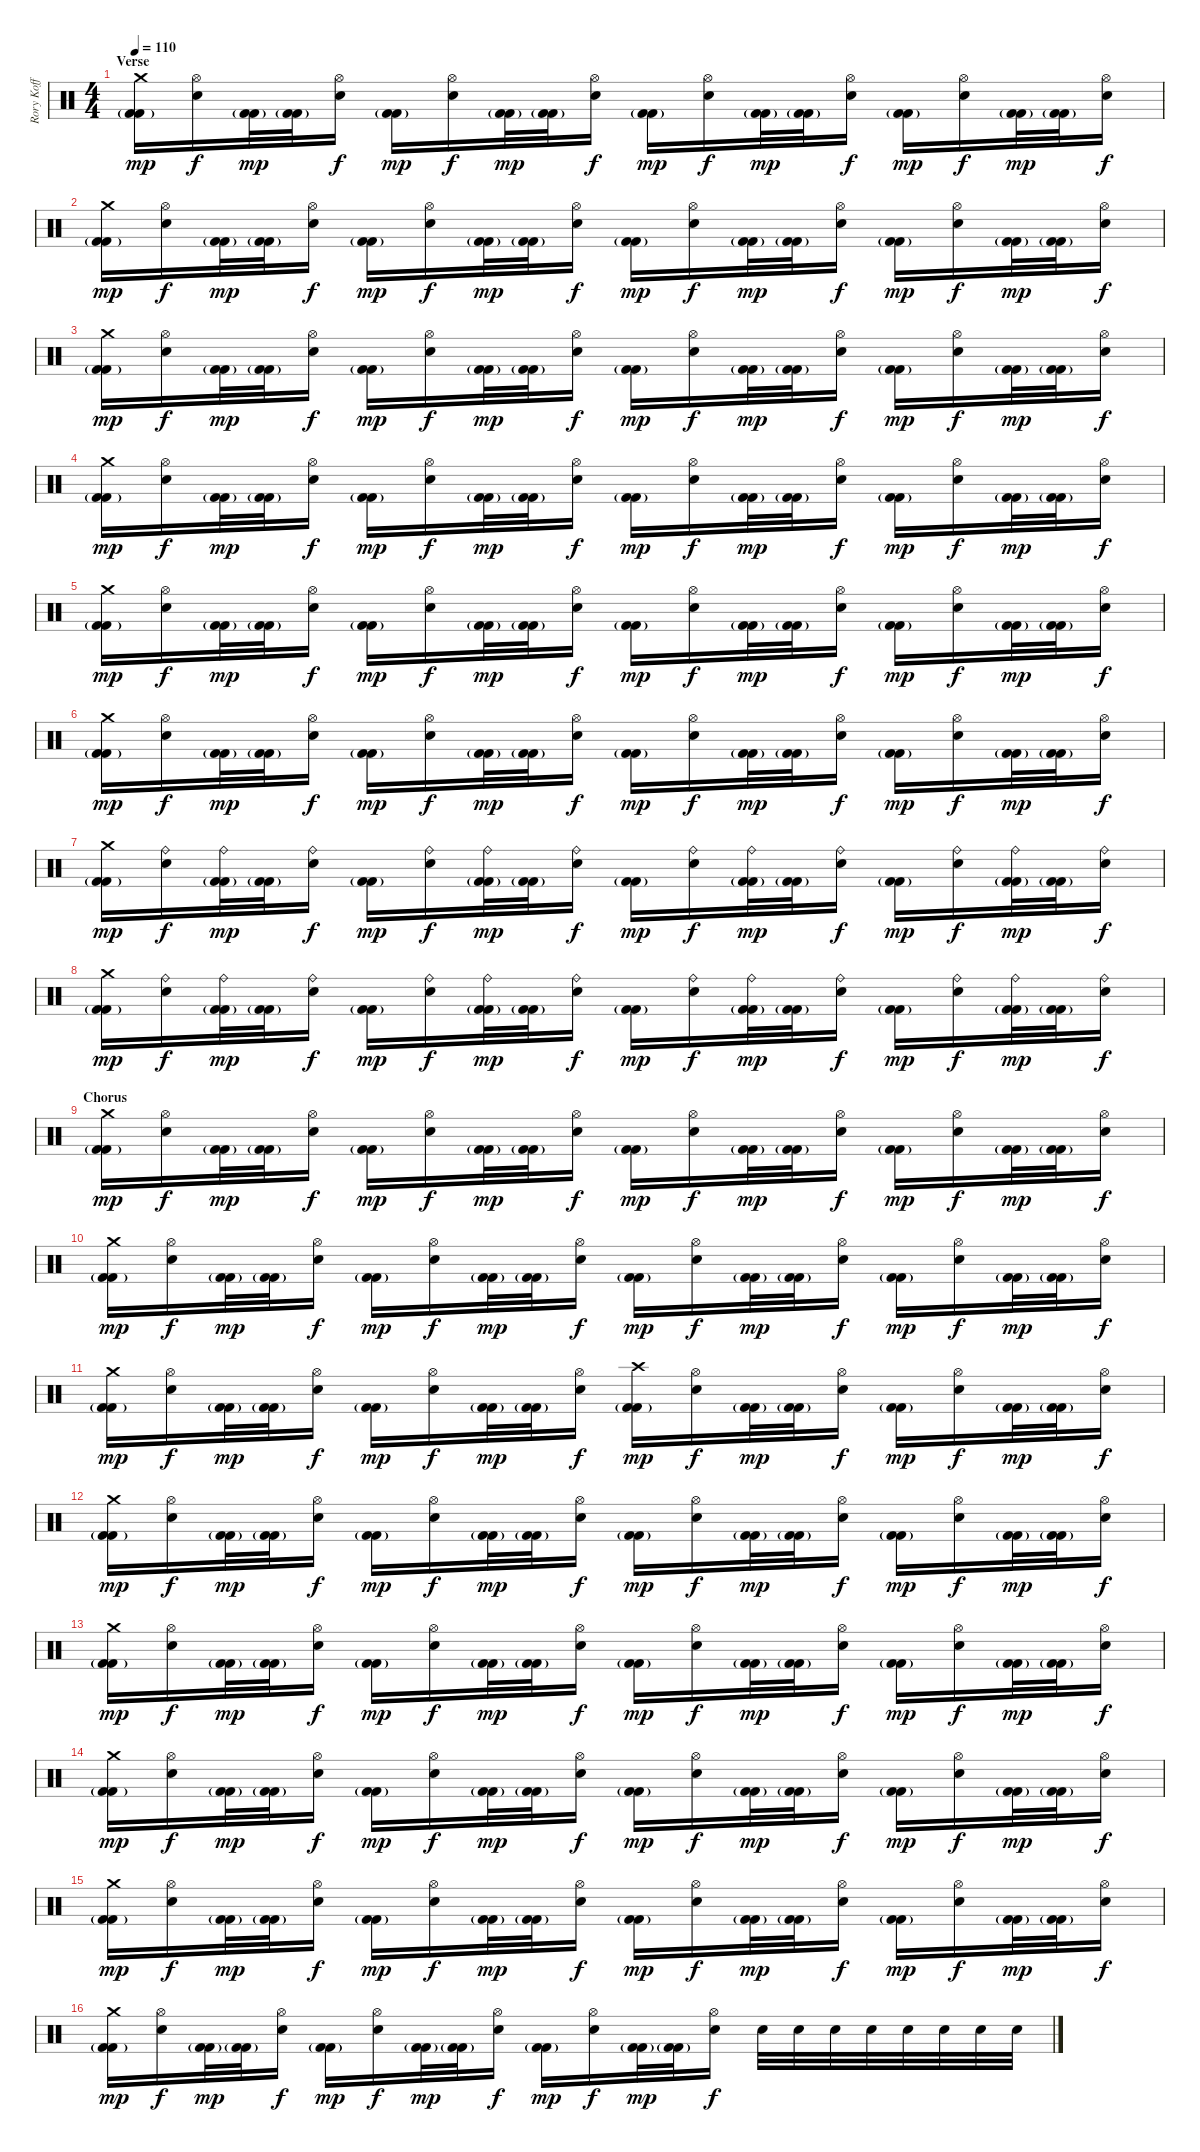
\track ("Rory Koff" "Rory Koff") {instrument percussion}
\staff {score}
\articulation defaults
\ts (4 4)
\section ("" "Verse")
\tempo 110
\clef neutral
\ks c
("Crash medium (hit)" "Kick (hit) 2"{g} "Kick (hit) 2").16{dy mp} ("Hi-Hat (open)" "Snare (hit) 2").16{dy f} ("Kick (hit) 2"{g} "Kick (hit) 2").32{dy mp} ("Kick (hit) 2"{g} "Kick (hit) 2").32 ("Hi-Hat (open)" "Snare (hit) 2").16{dy f} ("Kick (hit) 2"{g} "Kick (hit) 2").16{dy mp} ("Hi-Hat (open)" "Snare (hit) 2").16{dy f} ("Kick (hit) 2"{g} "Kick (hit) 2").32{dy mp} ("Kick (hit) 2"{g} "Kick (hit) 2").32 ("Hi-Hat (open)" "Snare (hit) 2").16{dy f} ("Kick (hit) 2"{g} "Kick (hit) 2").16{dy mp} ("Hi-Hat (open)" "Snare (hit) 2").16{dy f} ("Kick (hit) 2"{g} "Kick (hit) 2").32{dy mp} ("Kick (hit) 2"{g} "Kick (hit) 2").32 ("Hi-Hat (open)" "Snare (hit) 2").16{dy f} ("Kick (hit) 2"{g} "Kick (hit) 2").16{dy mp} ("Hi-Hat (open)" "Snare (hit) 2").16{dy f} ("Kick (hit) 2"{g} "Kick (hit) 2").32{dy mp} ("Kick (hit) 2"{g} "Kick (hit) 2").32 ("Hi-Hat (open)" "Snare (hit) 2").16{dy f} |
("Crash medium (hit)" "Kick (hit) 2"{g} "Kick (hit) 2").16{dy mp} ("Hi-Hat (open)" "Snare (hit) 2").16{dy f} ("Kick (hit) 2"{g} "Kick (hit) 2").32{dy mp} ("Kick (hit) 2"{g} "Kick (hit) 2").32 ("Hi-Hat (open)" "Snare (hit) 2").16{dy f} ("Kick (hit) 2"{g} "Kick (hit) 2").16{dy mp} ("Hi-Hat (open)" "Snare (hit) 2").16{dy f} ("Kick (hit) 2"{g} "Kick (hit) 2").32{dy mp} ("Kick (hit) 2"{g} "Kick (hit) 2").32 ("Hi-Hat (open)" "Snare (hit) 2").16{dy f} ("Kick (hit) 2"{g} "Kick (hit) 2").16{dy mp} ("Hi-Hat (open)" "Snare (hit) 2").16{dy f} ("Kick (hit) 2"{g} "Kick (hit) 2").32{dy mp} ("Kick (hit) 2"{g} "Kick (hit) 2").32 ("Hi-Hat (open)" "Snare (hit) 2").16{dy f} ("Kick (hit) 2"{g} "Kick (hit) 2").16{dy mp} ("Hi-Hat (open)" "Snare (hit) 2").16{dy f} ("Kick (hit) 2"{g} "Kick (hit) 2").32{dy mp} ("Kick (hit) 2"{g} "Kick (hit) 2").32 ("Hi-Hat (open)" "Snare (hit) 2").16{dy f} |
("Crash medium (hit)" "Kick (hit) 2"{g} "Kick (hit) 2").16{dy mp} ("Hi-Hat (open)" "Snare (hit) 2").16{dy f} ("Kick (hit) 2"{g} "Kick (hit) 2").32{dy mp} ("Kick (hit) 2"{g} "Kick (hit) 2").32 ("Hi-Hat (open)" "Snare (hit) 2").16{dy f} ("Kick (hit) 2"{g} "Kick (hit) 2").16{dy mp} ("Hi-Hat (open)" "Snare (hit) 2").16{dy f} ("Kick (hit) 2"{g} "Kick (hit) 2").32{dy mp} ("Kick (hit) 2"{g} "Kick (hit) 2").32 ("Hi-Hat (open)" "Snare (hit) 2").16{dy f} ("Kick (hit) 2"{g} "Kick (hit) 2").16{dy mp} ("Hi-Hat (open)" "Snare (hit) 2").16{dy f} ("Kick (hit) 2"{g} "Kick (hit) 2").32{dy mp} ("Kick (hit) 2"{g} "Kick (hit) 2").32 ("Hi-Hat (open)" "Snare (hit) 2").16{dy f} ("Kick (hit) 2"{g} "Kick (hit) 2").16{dy mp} ("Hi-Hat (open)" "Snare (hit) 2").16{dy f} ("Kick (hit) 2"{g} "Kick (hit) 2").32{dy mp} ("Kick (hit) 2"{g} "Kick (hit) 2").32 ("Hi-Hat (open)" "Snare (hit) 2").16{dy f} |
("Crash medium (hit)" "Kick (hit) 2"{g} "Kick (hit) 2").16{dy mp} ("Hi-Hat (open)" "Snare (hit) 2").16{dy f} ("Kick (hit) 2"{g} "Kick (hit) 2").32{dy mp} ("Kick (hit) 2"{g} "Kick (hit) 2").32 ("Hi-Hat (open)" "Snare (hit) 2").16{dy f} ("Kick (hit) 2"{g} "Kick (hit) 2").16{dy mp} ("Hi-Hat (open)" "Snare (hit) 2").16{dy f} ("Kick (hit) 2"{g} "Kick (hit) 2").32{dy mp} ("Kick (hit) 2"{g} "Kick (hit) 2").32 ("Hi-Hat (open)" "Snare (hit) 2").16{dy f} ("Kick (hit) 2"{g} "Kick (hit) 2").16{dy mp} ("Hi-Hat (open)" "Snare (hit) 2").16{dy f} ("Kick (hit) 2"{g} "Kick (hit) 2").32{dy mp} ("Kick (hit) 2"{g} "Kick (hit) 2").32 ("Hi-Hat (open)" "Snare (hit) 2").16{dy f} ("Kick (hit) 2"{g} "Kick (hit) 2").16{dy mp} ("Hi-Hat (open)" "Snare (hit) 2").16{dy f} ("Kick (hit) 2"{g} "Kick (hit) 2").32{dy mp} ("Kick (hit) 2"{g} "Kick (hit) 2").32 ("Hi-Hat (open)" "Snare (hit) 2").16{dy f} |
("Crash medium (hit)" "Kick (hit) 2"{g} "Kick (hit) 2").16{dy mp} ("Hi-Hat (open)" "Snare (hit) 2").16{dy f} ("Kick (hit) 2"{g} "Kick (hit) 2").32{dy mp} ("Kick (hit) 2"{g} "Kick (hit) 2").32 ("Hi-Hat (open)" "Snare (hit) 2").16{dy f} ("Kick (hit) 2"{g} "Kick (hit) 2").16{dy mp} ("Hi-Hat (open)" "Snare (hit) 2").16{dy f} ("Kick (hit) 2"{g} "Kick (hit) 2").32{dy mp} ("Kick (hit) 2"{g} "Kick (hit) 2").32 ("Hi-Hat (open)" "Snare (hit) 2").16{dy f} ("Kick (hit) 2"{g} "Kick (hit) 2").16{dy mp} ("Hi-Hat (open)" "Snare (hit) 2").16{dy f} ("Kick (hit) 2"{g} "Kick (hit) 2").32{dy mp} ("Kick (hit) 2"{g} "Kick (hit) 2").32 ("Hi-Hat (open)" "Snare (hit) 2").16{dy f} ("Kick (hit) 2"{g} "Kick (hit) 2").16{dy mp} ("Hi-Hat (open)" "Snare (hit) 2").16{dy f} ("Kick (hit) 2"{g} "Kick (hit) 2").32{dy mp} ("Kick (hit) 2"{g} "Kick (hit) 2").32 ("Hi-Hat (open)" "Snare (hit) 2").16{dy f} |
("Crash medium (hit)" "Kick (hit) 2"{g} "Kick (hit) 2").16{dy mp} ("Hi-Hat (open)" "Snare (hit) 2").16{dy f} ("Kick (hit) 2"{g} "Kick (hit) 2").32{dy mp} ("Kick (hit) 2"{g} "Kick (hit) 2").32 ("Hi-Hat (open)" "Snare (hit) 2").16{dy f} ("Kick (hit) 2"{g} "Kick (hit) 2").16{dy mp} ("Hi-Hat (open)" "Snare (hit) 2").16{dy f} ("Kick (hit) 2"{g} "Kick (hit) 2").32{dy mp} ("Kick (hit) 2"{g} "Kick (hit) 2").32 ("Hi-Hat (open)" "Snare (hit) 2").16{dy f} ("Kick (hit) 2"{g} "Kick (hit) 2").16{dy mp} ("Hi-Hat (open)" "Snare (hit) 2").16{dy f} ("Kick (hit) 2"{g} "Kick (hit) 2").32{dy mp} ("Kick (hit) 2"{g} "Kick (hit) 2").32 ("Hi-Hat (open)" "Snare (hit) 2").16{dy f} ("Kick (hit) 2"{g} "Kick (hit) 2").16{dy mp} ("Hi-Hat (open)" "Snare (hit) 2").16{dy f} ("Kick (hit) 2"{g} "Kick (hit) 2").32{dy mp} ("Kick (hit) 2"{g} "Kick (hit) 2").32 ("Hi-Hat (open)" "Snare (hit) 2").16{dy f} |
("Crash medium (hit)" "Kick (hit) 2"{g} "Kick (hit) 2").16{dy mp} ("Ride (bell)" "Snare (hit) 2").16{dy f} ("Ride (bell)" "Kick (hit) 2"{g} "Kick (hit) 2").32{dy mp} ("Kick (hit) 2"{g} "Kick (hit) 2").32 ("Ride (bell)" "Snare (hit) 2").16{dy f} ("Kick (hit) 2"{g} "Kick (hit) 2").16{dy mp} ("Ride (bell)" "Snare (hit) 2").16{dy f} ("Ride (bell)" "Kick (hit) 2"{g} "Kick (hit) 2").32{dy mp} ("Kick (hit) 2"{g} "Kick (hit) 2").32 ("Ride (bell)" "Snare (hit) 2").16{dy f} ("Kick (hit) 2"{g} "Kick (hit) 2").16{dy mp} ("Ride (bell)" "Snare (hit) 2").16{dy f} ("Ride (bell)" "Kick (hit) 2"{g} "Kick (hit) 2").32{dy mp} ("Kick (hit) 2"{g} "Kick (hit) 2").32 ("Ride (bell)" "Snare (hit) 2").16{dy f} ("Kick (hit) 2"{g} "Kick (hit) 2").16{dy mp} ("Ride (bell)" "Snare (hit) 2").16{dy f} ("Ride (bell)" "Kick (hit) 2"{g} "Kick (hit) 2").32{dy mp} ("Kick (hit) 2"{g} "Kick (hit) 2").32 ("Ride (bell)" "Snare (hit) 2").16{dy f} |
("Crash medium (hit)" "Kick (hit) 2"{g} "Kick (hit) 2").16{dy mp} ("Ride (bell)" "Snare (hit) 2").16{dy f} ("Ride (bell)" "Kick (hit) 2"{g} "Kick (hit) 2").32{dy mp} ("Kick (hit) 2"{g} "Kick (hit) 2").32 ("Ride (bell)" "Snare (hit) 2").16{dy f} ("Kick (hit) 2"{g} "Kick (hit) 2").16{dy mp} ("Ride (bell)" "Snare (hit) 2").16{dy f} ("Ride (bell)" "Kick (hit) 2"{g} "Kick (hit) 2").32{dy mp} ("Kick (hit) 2"{g} "Kick (hit) 2").32 ("Ride (bell)" "Snare (hit) 2").16{dy f} ("Kick (hit) 2"{g} "Kick (hit) 2").16{dy mp} ("Ride (bell)" "Snare (hit) 2").16{dy f} ("Ride (bell)" "Kick (hit) 2"{g} "Kick (hit) 2").32{dy mp} ("Kick (hit) 2"{g} "Kick (hit) 2").32 ("Ride (bell)" "Snare (hit) 2").16{dy f} ("Kick (hit) 2"{g} "Kick (hit) 2").16{dy mp} ("Ride (bell)" "Snare (hit) 2").16{dy f} ("Ride (bell)" "Kick (hit) 2"{g} "Kick (hit) 2").32{dy mp} ("Kick (hit) 2"{g} "Kick (hit) 2").32 ("Ride (bell)" "Snare (hit) 2").16{dy f} |
\section ("" "Chorus")
("Crash medium (hit)" "Kick (hit) 2"{g} "Kick (hit) 2").16{dy mp} ("Hi-Hat (open)" "Snare (hit) 2").16{dy f} ("Kick (hit) 2"{g} "Kick (hit) 2").32{dy mp} ("Kick (hit) 2"{g} "Kick (hit) 2").32 ("Hi-Hat (open)" "Snare (hit) 2").16{dy f} ("Kick (hit) 2"{g} "Kick (hit) 2").16{dy mp} ("Hi-Hat (open)" "Snare (hit) 2").16{dy f} ("Kick (hit) 2"{g} "Kick (hit) 2").32{dy mp} ("Kick (hit) 2"{g} "Kick (hit) 2").32 ("Hi-Hat (open)" "Snare (hit) 2").16{dy f} ("Kick (hit) 2"{g} "Kick (hit) 2").16{dy mp} ("Hi-Hat (open)" "Snare (hit) 2").16{dy f} ("Kick (hit) 2"{g} "Kick (hit) 2").32{dy mp} ("Kick (hit) 2"{g} "Kick (hit) 2").32 ("Hi-Hat (open)" "Snare (hit) 2").16{dy f} ("Kick (hit) 2"{g} "Kick (hit) 2").16{dy mp} ("Hi-Hat (open)" "Snare (hit) 2").16{dy f} ("Kick (hit) 2"{g} "Kick (hit) 2").32{dy mp} ("Kick (hit) 2"{g} "Kick (hit) 2").32 ("Hi-Hat (open)" "Snare (hit) 2").16{dy f} |
("Crash medium (hit)" "Kick (hit) 2"{g} "Kick (hit) 2").16{dy mp} ("Hi-Hat (open)" "Snare (hit) 2").16{dy f} ("Kick (hit) 2"{g} "Kick (hit) 2").32{dy mp} ("Kick (hit) 2"{g} "Kick (hit) 2").32 ("Hi-Hat (open)" "Snare (hit) 2").16{dy f} ("Kick (hit) 2"{g} "Kick (hit) 2").16{dy mp} ("Hi-Hat (open)" "Snare (hit) 2").16{dy f} ("Kick (hit) 2"{g} "Kick (hit) 2").32{dy mp} ("Kick (hit) 2"{g} "Kick (hit) 2").32 ("Hi-Hat (open)" "Snare (hit) 2").16{dy f} ("Kick (hit) 2"{g} "Kick (hit) 2").16{dy mp} ("Hi-Hat (open)" "Snare (hit) 2").16{dy f} ("Kick (hit) 2"{g} "Kick (hit) 2").32{dy mp} ("Kick (hit) 2"{g} "Kick (hit) 2").32 ("Hi-Hat (open)" "Snare (hit) 2").16{dy f} ("Kick (hit) 2"{g} "Kick (hit) 2").16{dy mp} ("Hi-Hat (open)" "Snare (hit) 2").16{dy f} ("Kick (hit) 2"{g} "Kick (hit) 2").32{dy mp} ("Kick (hit) 2"{g} "Kick (hit) 2").32 ("Hi-Hat (open)" "Snare (hit) 2").16{dy f} |
("Crash medium (hit)" "Kick (hit) 2"{g} "Kick (hit) 2").16{dy mp} ("Hi-Hat (open)" "Snare (hit) 2").16{dy f} ("Kick (hit) 2"{g} "Kick (hit) 2").32{dy mp} ("Kick (hit) 2"{g} "Kick (hit) 2").32 ("Hi-Hat (open)" "Snare (hit) 2").16{dy f} ("Kick (hit) 2"{g} "Kick (hit) 2").16{dy mp} ("Hi-Hat (open)" "Snare (hit) 2").16{dy f} ("Kick (hit) 2"{g} "Kick (hit) 2").32{dy mp} ("Kick (hit) 2"{g} "Kick (hit) 2").32 ("Hi-Hat (open)" "Snare (hit) 2").16{dy f} ("Crash high (hit)" "Kick (hit) 2"{g} "Kick (hit) 2").16{dy mp} ("Hi-Hat (open)" "Snare (hit) 2").16{dy f} ("Kick (hit) 2"{g} "Kick (hit) 2").32{dy mp} ("Kick (hit) 2"{g} "Kick (hit) 2").32 ("Hi-Hat (open)" "Snare (hit) 2").16{dy f} ("Kick (hit) 2"{g} "Kick (hit) 2").16{dy mp} ("Hi-Hat (open)" "Snare (hit) 2").16{dy f} ("Kick (hit) 2"{g} "Kick (hit) 2").32{dy mp} ("Kick (hit) 2"{g} "Kick (hit) 2").32 ("Hi-Hat (open)" "Snare (hit) 2").16{dy f} |
("Crash medium (hit)" "Kick (hit) 2"{g} "Kick (hit) 2").16{dy mp} ("Hi-Hat (open)" "Snare (hit) 2").16{dy f} ("Kick (hit) 2"{g} "Kick (hit) 2").32{dy mp} ("Kick (hit) 2"{g} "Kick (hit) 2").32 ("Hi-Hat (open)" "Snare (hit) 2").16{dy f} ("Kick (hit) 2"{g} "Kick (hit) 2").16{dy mp} ("Hi-Hat (open)" "Snare (hit) 2").16{dy f} ("Kick (hit) 2"{g} "Kick (hit) 2").32{dy mp} ("Kick (hit) 2"{g} "Kick (hit) 2").32 ("Hi-Hat (open)" "Snare (hit) 2").16{dy f} ("Kick (hit) 2"{g} "Kick (hit) 2").16{dy mp} ("Hi-Hat (open)" "Snare (hit) 2").16{dy f} ("Kick (hit) 2"{g} "Kick (hit) 2").32{dy mp} ("Kick (hit) 2"{g} "Kick (hit) 2").32 ("Hi-Hat (open)" "Snare (hit) 2").16{dy f} ("Kick (hit) 2"{g} "Kick (hit) 2").16{dy mp} ("Hi-Hat (open)" "Snare (hit) 2").16{dy f} ("Kick (hit) 2"{g} "Kick (hit) 2").32{dy mp} ("Kick (hit) 2"{g} "Kick (hit) 2").32 ("Hi-Hat (open)" "Snare (hit) 2").16{dy f} |
("Crash medium (hit)" "Kick (hit) 2"{g} "Kick (hit) 2").16{dy mp} ("Hi-Hat (open)" "Snare (hit) 2").16{dy f} ("Kick (hit) 2"{g} "Kick (hit) 2").32{dy mp} ("Kick (hit) 2"{g} "Kick (hit) 2").32 ("Hi-Hat (open)" "Snare (hit) 2").16{dy f} ("Kick (hit) 2"{g} "Kick (hit) 2").16{dy mp} ("Hi-Hat (open)" "Snare (hit) 2").16{dy f} ("Kick (hit) 2"{g} "Kick (hit) 2").32{dy mp} ("Kick (hit) 2"{g} "Kick (hit) 2").32 ("Hi-Hat (open)" "Snare (hit) 2").16{dy f} ("Kick (hit) 2"{g} "Kick (hit) 2").16{dy mp} ("Hi-Hat (open)" "Snare (hit) 2").16{dy f} ("Kick (hit) 2"{g} "Kick (hit) 2").32{dy mp} ("Kick (hit) 2"{g} "Kick (hit) 2").32 ("Hi-Hat (open)" "Snare (hit) 2").16{dy f} ("Kick (hit) 2"{g} "Kick (hit) 2").16{dy mp} ("Hi-Hat (open)" "Snare (hit) 2").16{dy f} ("Kick (hit) 2"{g} "Kick (hit) 2").32{dy mp} ("Kick (hit) 2"{g} "Kick (hit) 2").32 ("Hi-Hat (open)" "Snare (hit) 2").16{dy f} |
("Crash medium (hit)" "Kick (hit) 2"{g} "Kick (hit) 2").16{dy mp} ("Hi-Hat (open)" "Snare (hit) 2").16{dy f} ("Kick (hit) 2"{g} "Kick (hit) 2").32{dy mp} ("Kick (hit) 2"{g} "Kick (hit) 2").32 ("Hi-Hat (open)" "Snare (hit) 2").16{dy f} ("Kick (hit) 2"{g} "Kick (hit) 2").16{dy mp} ("Hi-Hat (open)" "Snare (hit) 2").16{dy f} ("Kick (hit) 2"{g} "Kick (hit) 2").32{dy mp} ("Kick (hit) 2"{g} "Kick (hit) 2").32 ("Hi-Hat (open)" "Snare (hit) 2").16{dy f} ("Kick (hit) 2"{g} "Kick (hit) 2").16{dy mp} ("Hi-Hat (open)" "Snare (hit) 2").16{dy f} ("Kick (hit) 2"{g} "Kick (hit) 2").32{dy mp} ("Kick (hit) 2"{g} "Kick (hit) 2").32 ("Hi-Hat (open)" "Snare (hit) 2").16{dy f} ("Kick (hit) 2"{g} "Kick (hit) 2").16{dy mp} ("Hi-Hat (open)" "Snare (hit) 2").16{dy f} ("Kick (hit) 2"{g} "Kick (hit) 2").32{dy mp} ("Kick (hit) 2"{g} "Kick (hit) 2").32 ("Hi-Hat (open)" "Snare (hit) 2").16{dy f} |
("Crash medium (hit)" "Kick (hit) 2"{g} "Kick (hit) 2").16{dy mp} ("Hi-Hat (open)" "Snare (hit) 2").16{dy f} ("Kick (hit) 2"{g} "Kick (hit) 2").32{dy mp} ("Kick (hit) 2"{g} "Kick (hit) 2").32 ("Hi-Hat (open)" "Snare (hit) 2").16{dy f} ("Kick (hit) 2"{g} "Kick (hit) 2").16{dy mp} ("Hi-Hat (open)" "Snare (hit) 2").16{dy f} ("Kick (hit) 2"{g} "Kick (hit) 2").32{dy mp} ("Kick (hit) 2"{g} "Kick (hit) 2").32 ("Hi-Hat (open)" "Snare (hit) 2").16{dy f} ("Kick (hit) 2"{g} "Kick (hit) 2").16{dy mp} ("Hi-Hat (open)" "Snare (hit) 2").16{dy f} ("Kick (hit) 2"{g} "Kick (hit) 2").32{dy mp} ("Kick (hit) 2"{g} "Kick (hit) 2").32 ("Hi-Hat (open)" "Snare (hit) 2").16{dy f} ("Kick (hit) 2"{g} "Kick (hit) 2").16{dy mp} ("Hi-Hat (open)" "Snare (hit) 2").16{dy f} ("Kick (hit) 2"{g} "Kick (hit) 2").32{dy mp} ("Kick (hit) 2"{g} "Kick (hit) 2").32 ("Hi-Hat (open)" "Snare (hit) 2").16{dy f} |
("Crash medium (hit)" "Kick (hit) 2"{g} "Kick (hit) 2").16{dy mp} ("Hi-Hat (open)" "Snare (hit) 2").16{dy f} ("Kick (hit) 2"{g} "Kick (hit) 2").32{dy mp} ("Kick (hit) 2"{g} "Kick (hit) 2").32 ("Hi-Hat (open)" "Snare (hit) 2").16{dy f} ("Kick (hit) 2"{g} "Kick (hit) 2").16{dy mp} ("Hi-Hat (open)" "Snare (hit) 2").16{dy f} ("Kick (hit) 2"{g} "Kick (hit) 2").32{dy mp} ("Kick (hit) 2"{g} "Kick (hit) 2").32 ("Hi-Hat (open)" "Snare (hit) 2").16{dy f} ("Kick (hit) 2"{g} "Kick (hit) 2").16{dy mp} ("Hi-Hat (open)" "Snare (hit) 2").16{dy f} ("Kick (hit) 2"{g} "Kick (hit) 2").32{dy mp} ("Kick (hit) 2"{g} "Kick (hit) 2").32 ("Hi-Hat (open)" "Snare (hit) 2").16{dy f} "Snare (hit) 2".32 "Snare (hit) 2".32 "Snare (hit) 2".32 "Snare (hit) 2".32 "Snare (hit) 2".32 "Snare (hit) 2".32 "Snare (hit) 2".32 "Snare (hit) 2".32
